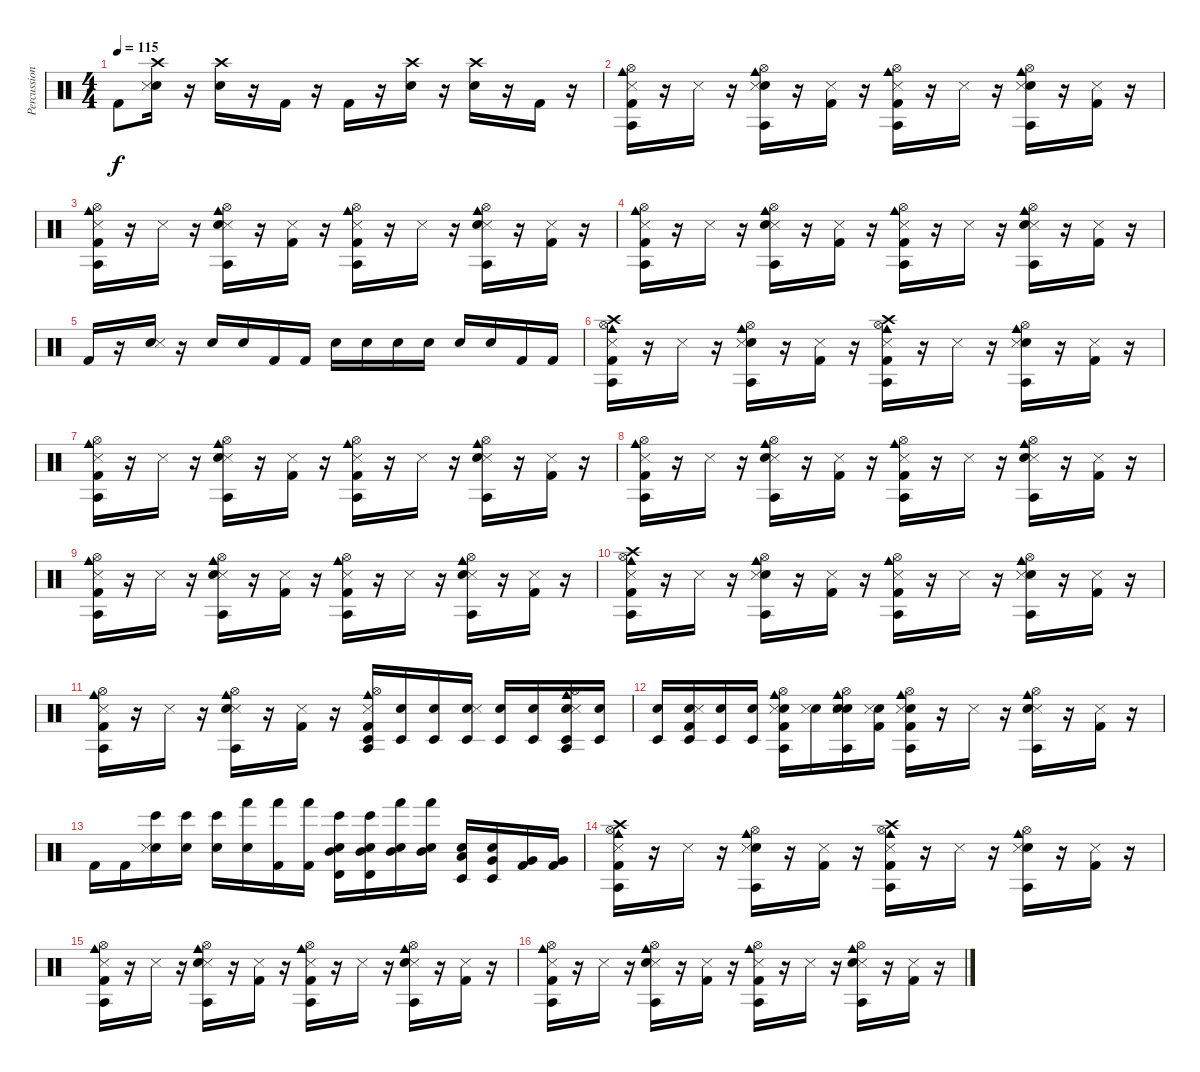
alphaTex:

\track ("Percussion" "Percussion") {instrument percussion}
\staff {score}
\articulation defaults
\ts (4 4)
\tempo 115
\clef neutral
\ks c "Kick (hit) 2".8{dy f}
("Crash high (hit)" "Snare (hit) 2" "Snare (side stick) 3").16 r.16 ("Snare (hit) 2" "Crash high (hit)").16 r.16 "Kick (hit) 2".16 r.16 "Kick (hit) 2".16 r.16 ("Snare (hit) 2" "Crash high (hit)").16 r.16 ("Snare (hit) 2" "Crash high (hit)").16 r.16 "Kick (hit) 2".16 r.16 |
("Hi-Hat (open)" "Kick (hit) 2" "Agogo tow (hit)" "Cowbell medium (hit)" "Snare (side stick) 3").16 r.16 "Snare (side stick) 3".16 r.16 ("Hi-Hat (open)" "Snare (hit) 2" "Agogo tow (hit)" "Cowbell medium (hit)" "Snare (side stick) 3").16 r.16 ("Kick (hit) 2" "Snare (side stick) 3").16 r.16 ("Hi-Hat (open)" "Kick (hit) 2" "Agogo tow (hit)" "Cowbell medium (hit)" "Snare (side stick) 3").16 r.16 "Snare (side stick) 3".16 r.16 ("Hi-Hat (open)" "Snare (hit) 2" "Agogo tow (hit)" "Cowbell medium (hit)" "Snare (side stick) 3").16 r.16 ("Kick (hit) 2" "Snare (side stick) 3").16 r.16 |
("Hi-Hat (open)" "Cowbell medium (hit)" "Snare (side stick) 3" "Agogo tow (hit)" "Kick (hit) 2").16 r.16 "Snare (side stick) 3".16 r.16 ("Hi-Hat (open)" "Cowbell medium (hit)" "Snare (side stick) 3" "Agogo tow (hit)" "Snare (hit) 2").16 r.16 ("Snare (side stick) 3" "Kick (hit) 2").16 r.16 ("Hi-Hat (open)" "Cowbell medium (hit)" "Snare (side stick) 3" "Agogo tow (hit)" "Kick (hit) 2").16 r.16 "Snare (side stick) 3".16 r.16 ("Hi-Hat (open)" "Cowbell medium (hit)" "Snare (side stick) 3" "Agogo tow (hit)" "Snare (hit) 2").16 r.16 ("Snare (side stick) 3" "Kick (hit) 2").16 r.16 |
("Hi-Hat (open)" "Snare (side stick) 3" "Agogo tow (hit)" "Kick (hit) 2" "Cowbell medium (hit)").16 r.16 "Snare (side stick) 3".16 r.16 ("Hi-Hat (open)" "Snare (side stick) 3" "Agogo tow (hit)" "Snare (hit) 2" "Cowbell medium (hit)").16 r.16 ("Snare (side stick) 3" "Kick (hit) 2").16 r.16 ("Hi-Hat (open)" "Snare (side stick) 3" "Agogo tow (hit)" "Kick (hit) 2" "Cowbell medium (hit)").16 r.16 "Snare (side stick) 3".16 r.16 ("Hi-Hat (open)" "Snare (side stick) 3" "Agogo tow (hit)" "Snare (hit) 2" "Cowbell medium (hit)").16 r.16 ("Snare (side stick) 3" "Kick (hit) 2").16 r.16 |
"Kick (hit) 2".16 r.16 ("Snare (hit) 2" "Snare (side stick) 3").16 r.16 "Snare (hit) 2".16 "Snare (hit) 2".16 "Kick (hit) 2".16 "Kick (hit) 2".16 "Snare (hit) 2".16 "Snare (hit) 2".16 "Electric Snare (hit)".16 "Electric Snare (hit)".16 "Snare (hit) 2".16 "Snare (hit) 2".16 "Kick (hit) 2".16 "Kick (hit) 2".16 |
("Hi-Hat (open)" "Kick (hit) 2" "Agogo tow (hit)" "Crash high (hit)" "Cowbell medium (hit)" "Snare (side stick) 3").16 r.16 "Snare (side stick) 3".16 r.16 ("Hi-Hat (open)" "Snare (hit) 2" "Agogo tow (hit)" "Cowbell medium (hit)" "Snare (side stick) 3").16 r.16 ("Kick (hit) 2" "Snare (side stick) 3").16 r.16 ("Crash high (hit)" "Hi-Hat (open)" "Kick (hit) 2" "Agogo tow (hit)" "Cowbell medium (hit)" "Snare (side stick) 3").16 r.16 "Snare (side stick) 3".16 r.16 ("Hi-Hat (open)" "Snare (hit) 2" "Agogo tow (hit)" "Cowbell medium (hit)" "Snare (side stick) 3").16 r.16 ("Kick (hit) 2" "Snare (side stick) 3").16 r.16 |
("Hi-Hat (open)" "Cowbell medium (hit)" "Snare (side stick) 3" "Agogo tow (hit)" "Kick (hit) 2").16 r.16 "Snare (side stick) 3".16 r.16 ("Hi-Hat (open)" "Cowbell medium (hit)" "Snare (side stick) 3" "Agogo tow (hit)" "Snare (hit) 2").16 r.16 ("Snare (side stick) 3" "Kick (hit) 2").16 r.16 ("Hi-Hat (open)" "Cowbell medium (hit)" "Snare (side stick) 3" "Agogo tow (hit)" "Kick (hit) 2").16 r.16 "Snare (side stick) 3".16 r.16 ("Hi-Hat (open)" "Cowbell medium (hit)" "Snare (side stick) 3" "Agogo tow (hit)" "Snare (hit) 2").16 r.16 ("Snare (side stick) 3" "Kick (hit) 2").16 r.16 |
("Hi-Hat (open)" "Snare (side stick) 3" "Agogo tow (hit)" "Kick (hit) 2" "Cowbell medium (hit)").16 r.16 "Snare (side stick) 3".16 r.16 ("Hi-Hat (open)" "Snare (side stick) 3" "Agogo tow (hit)" "Snare (hit) 2" "Cowbell medium (hit)").16 r.16 ("Snare (side stick) 3" "Kick (hit) 2").16 r.16 ("Hi-Hat (open)" "Snare (side stick) 3" "Agogo tow (hit)" "Kick (hit) 2" "Cowbell medium (hit)").16 r.16 "Snare (side stick) 3".16 r.16 ("Hi-Hat (open)" "Snare (side stick) 3" "Agogo tow (hit)" "Snare (hit) 2" "Cowbell medium (hit)").16 r.16 ("Snare (side stick) 3" "Kick (hit) 2").16 r.16 |
("Hi-Hat (open)" "Snare (side stick) 3" "Agogo tow (hit)" "Kick (hit) 2" "Cowbell medium (hit)").16 r.16 "Snare (side stick) 3".16 r.16 ("Hi-Hat (open)" "Snare (side stick) 3" "Agogo tow (hit)" "Snare (hit) 2" "Cowbell medium (hit)").16 r.16 ("Snare (side stick) 3" "Kick (hit) 2").16 r.16 ("Hi-Hat (open)" "Snare (side stick) 3" "Agogo tow (hit)" "Kick (hit) 2" "Cowbell medium (hit)").16 r.16 "Snare (side stick) 3".16 r.16 ("Hi-Hat (open)" "Snare (side stick) 3" "Agogo tow (hit)" "Snare (hit) 2" "Cowbell medium (hit)").16 r.16 ("Snare (side stick) 3" "Kick (hit) 2").16 r.16 |
("Hi-Hat (open)" "Kick (hit) 2" "Agogo tow (hit)" "Crash high (hit)" "Cowbell medium (hit)" "Snare (side stick) 3").16 r.16 "Snare (side stick) 3".16 r.16 ("Hi-Hat (open)" "Snare (hit) 2" "Agogo tow (hit)" "Cowbell medium (hit)" "Snare (side stick) 3").16 r.16 ("Kick (hit) 2" "Snare (side stick) 3").16 r.16 ("Hi-Hat (open)" "Kick (hit) 2" "Agogo tow (hit)" "Cowbell medium (hit)" "Snare (side stick) 3").16 r.16 "Snare (side stick) 3".16 r.16 ("Hi-Hat (open)" "Snare (hit) 2" "Agogo tow (hit)" "Cowbell medium (hit)" "Snare (side stick) 3").16 r.16 ("Kick (hit) 2" "Snare (side stick) 3").16 r.16 |
("Hi-Hat (open)" "Cowbell medium (hit)" "Snare (side stick) 3" "Agogo tow (hit)" "Kick (hit) 2").16 r.16 "Snare (side stick) 3".16 r.16 ("Hi-Hat (open)" "Cowbell medium (hit)" "Snare (side stick) 3" "Agogo tow (hit)" "Snare (hit) 2").16 r.16 ("Snare (side stick) 3" "Kick (hit) 2").16 r.16 ("Timbale low (hit)" "Hi-Hat (open)" "Cowbell medium (hit)" "Snare (side stick) 3" "Agogo tow (hit)" "Kick (hit) 2").16 ("Snare (hit)" "Timbale low (hit)").16 ("Snare (hit)" "Timbale low (hit)").16 ("Snare (hit)" "Timbale low (hit)" "Snare (side stick) 3").16 ("Snare (hit)" "Timbale low (hit)").16 ("Snare (hit)" "Timbale low (hit)").16 ("Snare (hit)" "Hi-Hat (open)" "Cowbell medium (hit)" "Snare (side stick) 3" "Agogo tow (hit)" "Timbale low (hit)").16 ("Snare (hit)" "Timbale low (hit)").16 |
("Snare (hit)" "Timbale low (hit)").16 ("Snare (hit)" "Timbale low (hit)" "Snare (side stick) 3" "Kick (hit) 2").16 ("Snare (hit)" "Timbale low (hit)").16 ("Snare (hit)" "Timbale low (hit)").16 ("Snare (hit)" "Hi-Hat (open)" "Snare (side stick) 3" "Agogo tow (hit)" "Kick (hit) 2" "Cowbell medium (hit)").16 ("Snare (hit)" "Snare (side stick) 3").16 ("Snare (hit)" "Hi-Hat (open)" "Snare (side stick) 3" "Agogo tow (hit)" "Snare (hit) 2" "Cowbell medium (hit)").16 ("Snare (hit)" "Snare (side stick) 3" "Kick (hit) 2").16 ("Snare (hit)" "Hi-Hat (open)" "Snare (side stick) 3" "Agogo tow (hit)" "Kick (hit) 2" "Cowbell medium (hit)").16 r.16 "Snare (side stick) 3".16 r.16 ("Hi-Hat (open)" "Snare (side stick) 3" "Agogo tow (hit)" "Snare (hit) 2" "Cowbell medium (hit)").16 r.16 ("Snare (side stick) 3" "Kick (hit) 2").16 r.16 |
"Kick (hit) 2".16 "Kick (hit) 2".16 ("Snare (hit) 2" "Snare (side stick) 3" "Bongo High (hit)").16 ("Bongo High (hit)" "Snare (hit) 2").16 ("Bongo High (hit)" "Snare (hit) 2").16 ("Hand (hit)" "Snare (hit) 2").16 ("Hand (hit)" "Kick (hit) 2").16 ("Hand (hit)" "Kick (hit) 2").16 ("Timbale high (hit)" "Mid Tom (hit)" "Snare (hit) 2" "Bongo High (hit)").16 ("Mid Tom (hit)" "Snare (hit) 2" "Timbale high (hit)" "Bongo High (hit)").16 ("Mid Tom (hit)" "Electric Snare (hit)" "Hand (hit)").16 ("Electric Snare (hit)" "Mid Tom (hit)" "Hand (hit)").16 ("Timbale low (hit)" "Snare (hit) 2" "Low Tom (hit)").16 ("Timbale low (hit)" "Snare (hit) 2" "Very Low Tom (hit)").16 ("Kick (hit) 2" "Very Low Tom (hit)").16 ("Kick (hit) 2" "Very Low Tom (hit)").16 |
("Hi-Hat (open)" "Kick (hit) 2" "Agogo tow (hit)" "Crash high (hit)" "Cowbell medium (hit)" "Snare (side stick) 3").16 r.16 "Snare (side stick) 3".16 r.16 ("Hi-Hat (open)" "Snare (hit) 2" "Agogo tow (hit)" "Cowbell medium (hit)" "Snare (side stick) 3").16 r.16 ("Kick (hit) 2" "Snare (side stick) 3").16 r.16 ("Crash high (hit)" "Hi-Hat (open)" "Kick (hit) 2" "Agogo tow (hit)" "Cowbell medium (hit)" "Snare (side stick) 3").16 r.16 "Snare (side stick) 3".16 r.16 ("Hi-Hat (open)" "Snare (hit) 2" "Agogo tow (hit)" "Cowbell medium (hit)" "Snare (side stick) 3").16 r.16 ("Kick (hit) 2" "Snare (side stick) 3").16 r.16 |
("Hi-Hat (open)" "Cowbell medium (hit)" "Snare (side stick) 3" "Agogo tow (hit)" "Kick (hit) 2").16 r.16 "Snare (side stick) 3".16 r.16 ("Hi-Hat (open)" "Cowbell medium (hit)" "Snare (side stick) 3" "Agogo tow (hit)" "Snare (hit) 2").16 r.16 ("Snare (side stick) 3" "Kick (hit) 2").16 r.16 ("Hi-Hat (open)" "Cowbell medium (hit)" "Snare (side stick) 3" "Agogo tow (hit)" "Kick (hit) 2").16 r.16 "Snare (side stick) 3".16 r.16 ("Hi-Hat (open)" "Cowbell medium (hit)" "Snare (side stick) 3" "Agogo tow (hit)" "Snare (hit) 2").16 r.16 ("Snare (side stick) 3" "Kick (hit) 2").16 r.16 |
("Hi-Hat (open)" "Snare (side stick) 3" "Agogo tow (hit)" "Kick (hit) 2" "Cowbell medium (hit)").16 r.16 "Snare (side stick) 3".16 r.16 ("Hi-Hat (open)" "Snare (side stick) 3" "Agogo tow (hit)" "Snare (hit) 2" "Cowbell medium (hit)").16 r.16 ("Snare (side stick) 3" "Kick (hit) 2").16 r.16 ("Hi-Hat (open)" "Snare (side stick) 3" "Agogo tow (hit)" "Kick (hit) 2" "Cowbell medium (hit)").16 r.16 "Snare (side stick) 3".16 r.16 ("Hi-Hat (open)" "Snare (side stick) 3" "Agogo tow (hit)" "Snare (hit) 2" "Cowbell medium (hit)").16 r.16 ("Snare (side stick) 3" "Kick (hit) 2").16 r.16
